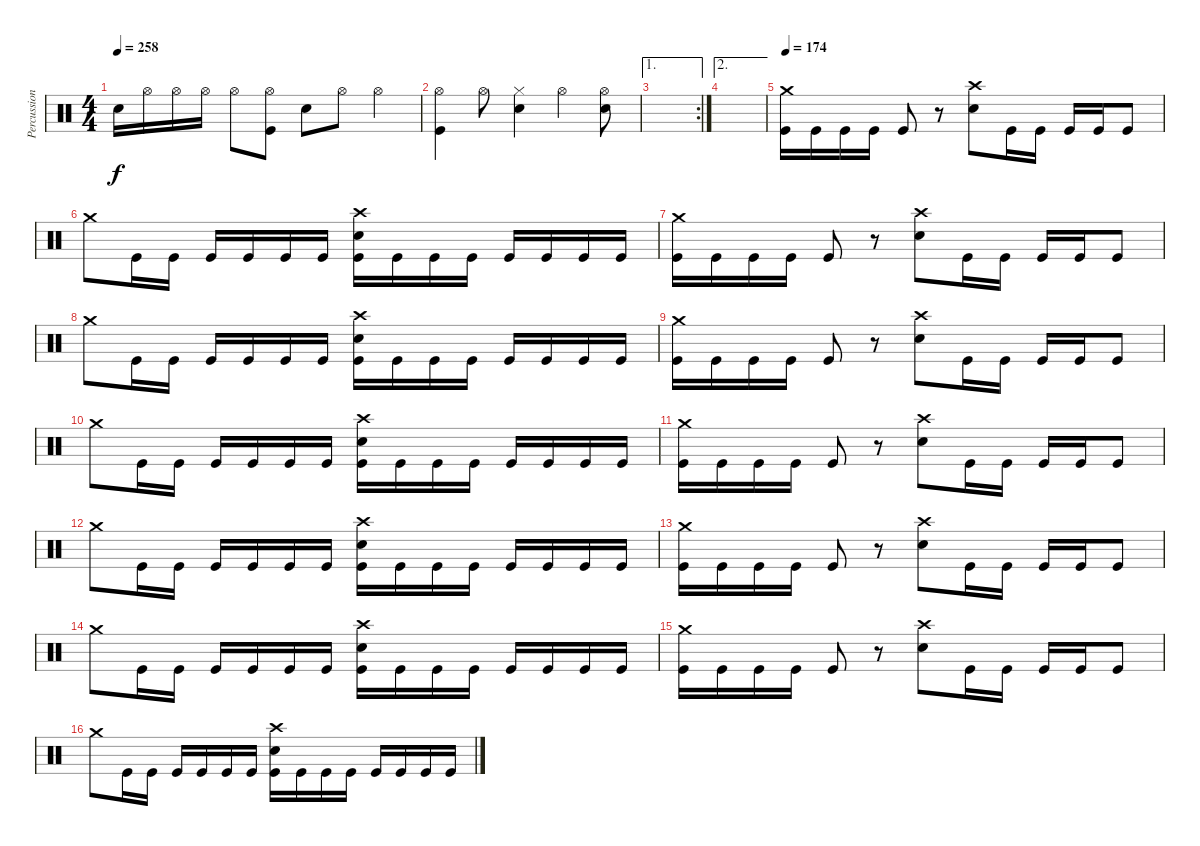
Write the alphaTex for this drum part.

\track ("Percussion" "Percussion") {instrument percussion}
\staff {score}
\articulation defaults
\ts (4 4)
\tempo 258
\clef neutral
\ks c "Snare (hit)"{t}.16{dy f} "Hi-Hat (open)".16 "Hi-Hat (open)".16 "Hi-Hat (open)".16 "Hi-Hat (open)".8
("Hi-Hat (open)" "Kick (hit)").8 "Snare (hit) 2".8 "Hi-Hat (open)".8 "Hi-Hat (open)".4 |
("Hi-Hat (open)" "Kick (hit)").4 "Hi-Hat (open)".8 ("Snare (hit) 2" "Hi-Hat (closed)").4 "Hi-Hat (open)".4 ("Snare (hit) 2" "Hi-Hat (open)").8 |
\ae 1
\rc 2
|
\ae 2
|
\tempo 174
("Crash medium (hit)" "Kick (hit)").16 "Kick (hit)".16 "Kick (hit)".16 "Kick (hit)".16 "Kick (hit)".8 r.8 ("Crash high (hit)" "Snare (hit) 2").8 "Kick (hit)".16 "Kick (hit)".16 "Kick (hit)".16 "Kick (hit)".16 "Kick (hit)".8 |
"Crash medium (hit)".8 "Kick (hit)".16 "Kick (hit)".16 "Kick (hit)".16 "Kick (hit)".16 "Kick (hit)".16 "Kick (hit)".16 ("Crash high (hit)" "Snare (hit) 2" "Kick (hit)").16 "Kick (hit)".16 "Kick (hit)".16 "Kick (hit)".16 "Kick (hit)".16 "Kick (hit)".16 "Kick (hit)".16 "Kick (hit)".16 |
("Crash medium (hit)" "Kick (hit)").16 "Kick (hit)".16 "Kick (hit)".16 "Kick (hit)".16 "Kick (hit)".8 r.8 ("Crash high (hit)" "Snare (hit) 2").8 "Kick (hit)".16 "Kick (hit)".16 "Kick (hit)".16 "Kick (hit)".16 "Kick (hit)".8 |
"Crash medium (hit)".8 "Kick (hit)".16 "Kick (hit)".16 "Kick (hit)".16 "Kick (hit)".16 "Kick (hit)".16 "Kick (hit)".16 ("Crash high (hit)" "Snare (hit) 2" "Kick (hit)").16 "Kick (hit)".16 "Kick (hit)".16 "Kick (hit)".16 "Kick (hit)".16 "Kick (hit)".16 "Kick (hit)".16 "Kick (hit)".16 |
("Crash medium (hit)" "Kick (hit)").16 "Kick (hit)".16 "Kick (hit)".16 "Kick (hit)".16 "Kick (hit)".8 r.8 ("Crash high (hit)" "Snare (hit) 2").8 "Kick (hit)".16 "Kick (hit)".16 "Kick (hit)".16 "Kick (hit)".16 "Kick (hit)".8 |
"Crash medium (hit)".8 "Kick (hit)".16 "Kick (hit)".16 "Kick (hit)".16 "Kick (hit)".16 "Kick (hit)".16 "Kick (hit)".16 ("Crash high (hit)" "Snare (hit) 2" "Kick (hit)").16 "Kick (hit)".16 "Kick (hit)".16 "Kick (hit)".16 "Kick (hit)".16 "Kick (hit)".16 "Kick (hit)".16 "Kick (hit)".16 |
("Crash medium (hit)" "Kick (hit)").16 "Kick (hit)".16 "Kick (hit)".16 "Kick (hit)".16 "Kick (hit)".8 r.8 ("Crash high (hit)" "Snare (hit) 2").8 "Kick (hit)".16 "Kick (hit)".16 "Kick (hit)".16 "Kick (hit)".16 "Kick (hit)".8 |
"Crash medium (hit)".8 "Kick (hit)".16 "Kick (hit)".16 "Kick (hit)".16 "Kick (hit)".16 "Kick (hit)".16 "Kick (hit)".16 ("Crash high (hit)" "Snare (hit) 2" "Kick (hit)").16 "Kick (hit)".16 "Kick (hit)".16 "Kick (hit)".16 "Kick (hit)".16 "Kick (hit)".16 "Kick (hit)".16 "Kick (hit)".16 |
("Crash medium (hit)" "Kick (hit)").16 "Kick (hit)".16 "Kick (hit)".16 "Kick (hit)".16 "Kick (hit)".8 r.8 ("Crash high (hit)" "Snare (hit) 2").8 "Kick (hit)".16 "Kick (hit)".16 "Kick (hit)".16 "Kick (hit)".16 "Kick (hit)".8 |
"Crash medium (hit)".8 "Kick (hit)".16 "Kick (hit)".16 "Kick (hit)".16 "Kick (hit)".16 "Kick (hit)".16 "Kick (hit)".16 ("Crash high (hit)" "Snare (hit) 2" "Kick (hit)").16 "Kick (hit)".16 "Kick (hit)".16 "Kick (hit)".16 "Kick (hit)".16 "Kick (hit)".16 "Kick (hit)".16 "Kick (hit)".16 |
("Crash medium (hit)" "Kick (hit)").16 "Kick (hit)".16 "Kick (hit)".16 "Kick (hit)".16 "Kick (hit)".8 r.8 ("Crash high (hit)" "Snare (hit) 2").8 "Kick (hit)".16 "Kick (hit)".16 "Kick (hit)".16 "Kick (hit)".16 "Kick (hit)".8 |
"Crash medium (hit)".8 "Kick (hit)".16 "Kick (hit)".16 "Kick (hit)".16 "Kick (hit)".16 "Kick (hit)".16 "Kick (hit)".16 ("Crash high (hit)" "Snare (hit) 2" "Kick (hit)").16 "Kick (hit)".16 "Kick (hit)".16 "Kick (hit)".16 "Kick (hit)".16 "Kick (hit)".16 "Kick (hit)".16 "Kick (hit)".16
